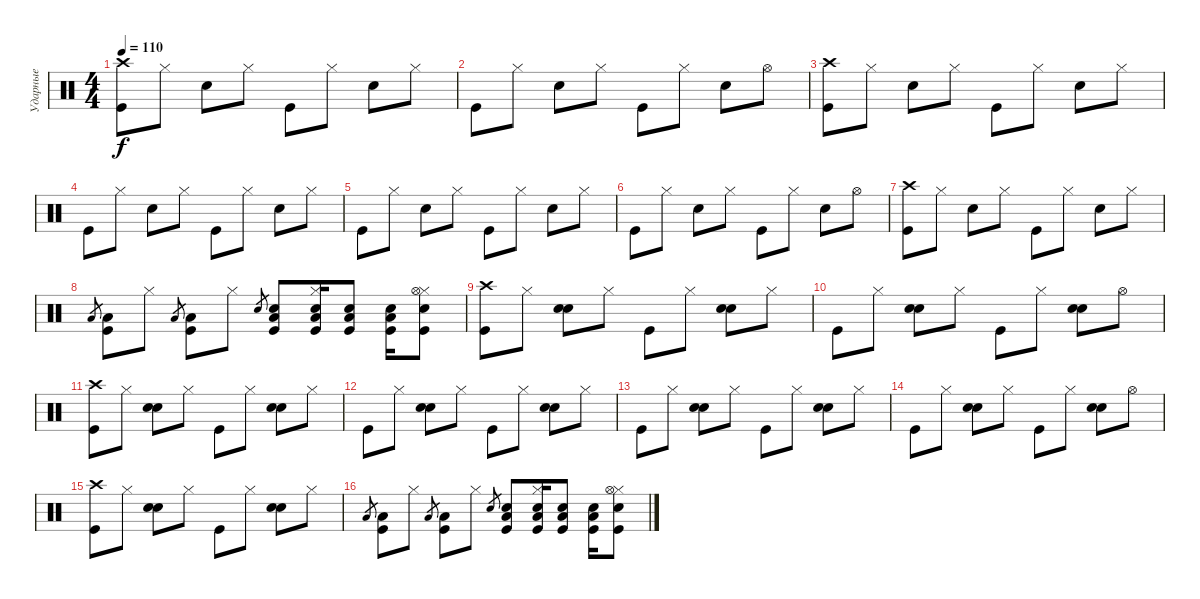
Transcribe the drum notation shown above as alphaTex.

\track ("Ударные" "Ударные") {instrument percussion}
\staff
\articulation defaults
\ts (4 4)
\tempo 110
\clef neutral
\ks c
("Crash high (hit)" "Kick (hit)").8{dy f} "Hi-Hat (closed)".8 "Snare (hit) 2".8 "Hi-Hat (closed)".8 "Kick (hit)".8 "Hi-Hat (closed)".8 "Snare (hit) 2".8 "Hi-Hat (closed)".8 |
"Kick (hit)".8 "Hi-Hat (closed)".8 "Snare (hit) 2".8 "Hi-Hat (closed)".8 "Kick (hit)".8 "Hi-Hat (closed)".8 "Snare (hit) 2".8 "Hi-Hat (open)".8 |
("Crash high (hit)" "Kick (hit)").8 "Hi-Hat (closed)".8 "Snare (hit) 2".8 "Hi-Hat (closed)".8 "Kick (hit)".8 "Hi-Hat (closed)".8 "Snare (hit) 2".8 "Hi-Hat (closed)".8 |
"Kick (hit)".8 "Hi-Hat (closed)".8 "Snare (hit) 2".8 "Hi-Hat (closed)".8 "Kick (hit)".8 "Hi-Hat (closed)".8 "Snare (hit) 2".8 "Hi-Hat (closed)".8 |
"Kick (hit)".8 "Hi-Hat (closed)".8 "Snare (hit) 2".8 "Hi-Hat (closed)".8 "Kick (hit)".8 "Hi-Hat (closed)".8 "Snare (hit) 2".8 "Hi-Hat (closed)".8 |
"Kick (hit)".8 "Hi-Hat (closed)".8 "Snare (hit) 2".8 "Hi-Hat (closed)".8 "Kick (hit)".8 "Hi-Hat (closed)".8 "Snare (hit) 2".8 "Hi-Hat (open)".8 |
("Crash high (hit)" "Kick (hit)").8 "Hi-Hat (closed)".8 "Snare (hit) 2".8 "Hi-Hat (closed)".8 "Kick (hit)".8 "Hi-Hat (closed)".8 "Snare (hit) 2".8 "Hi-Hat (closed)".8 |
"Low Floor Tom (hit)".8{gr} ("Low Floor Tom (hit)" "Kick (hit)").8 "Hi-Hat (closed)".8 "Low Floor Tom (hit)".8{gr} ("Low Floor Tom (hit)" "Kick (hit)").8 "Hi-Hat (closed)".8 "Snare (hit) 2".8{gr} ("Low Floor Tom (hit)" "Snare (hit) 2" "Kick (hit)").8 ("Hi-Hat (closed)" "Low Floor Tom (hit)" "Snare (hit) 2" "Kick (hit)").16 ("Low Floor Tom (hit)" "Snare (hit) 2" "Kick (hit)").8 ("Low Floor Tom (hit)" "Snare (hit) 2" "Kick (hit)").16 ("Hi-Hat (closed)" "Hi-Hat (open)" "Snare (hit) 2" "Kick (hit)").8 |
("Crash high (hit)" "Kick (hit)").8 "Hi-Hat (closed)".8 ("Hand Clap (hit)" "Snare (hit) 2").8 "Hi-Hat (closed)".8 "Kick (hit)".8 "Hi-Hat (closed)".8 ("Hand Clap (hit)" "Snare (hit) 2").8 "Hi-Hat (closed)".8 |
"Kick (hit)".8 "Hi-Hat (closed)".8 ("Hand Clap (hit)" "Snare (hit) 2").8 "Hi-Hat (closed)".8 "Kick (hit)".8 "Hi-Hat (closed)".8 ("Hand Clap (hit)" "Snare (hit) 2").8 "Hi-Hat (open)".8 |
("Crash high (hit)" "Kick (hit)").8 "Hi-Hat (closed)".8 ("Hand Clap (hit)" "Snare (hit) 2").8 "Hi-Hat (closed)".8 "Kick (hit)".8 "Hi-Hat (closed)".8 ("Hand Clap (hit)" "Snare (hit) 2").8 "Hi-Hat (closed)".8 |
"Kick (hit)".8 "Hi-Hat (closed)".8 ("Hand Clap (hit)" "Snare (hit) 2").8 "Hi-Hat (closed)".8 "Kick (hit)".8 "Hi-Hat (closed)".8 ("Hand Clap (hit)" "Snare (hit) 2").8 "Hi-Hat (closed)".8 |
"Kick (hit)".8 "Hi-Hat (closed)".8 ("Hand Clap (hit)" "Snare (hit) 2").8 "Hi-Hat (closed)".8 "Kick (hit)".8 "Hi-Hat (closed)".8 ("Hand Clap (hit)" "Snare (hit) 2").8 "Hi-Hat (closed)".8 |
"Kick (hit)".8 "Hi-Hat (closed)".8 ("Hand Clap (hit)" "Snare (hit) 2").8 "Hi-Hat (closed)".8 "Kick (hit)".8 "Hi-Hat (closed)".8 ("Hand Clap (hit)" "Snare (hit) 2").8 "Hi-Hat (open)".8 |
("Crash high (hit)" "Kick (hit)").8 "Hi-Hat (closed)".8 ("Hand Clap (hit)" "Snare (hit) 2").8 "Hi-Hat (closed)".8 "Kick (hit)".8 "Hi-Hat (closed)".8 ("Hand Clap (hit)" "Snare (hit) 2").8 "Hi-Hat (closed)".8 |
"Low Floor Tom (hit)".8{gr} ("Low Floor Tom (hit)" "Kick (hit)").8 "Hi-Hat (closed)".8 "Low Floor Tom (hit)".8{gr} ("Low Floor Tom (hit)" "Kick (hit)").8 "Hi-Hat (closed)".8 "Snare (hit) 2".8{gr} ("Low Floor Tom (hit)" "Snare (hit) 2" "Kick (hit)").8 ("Hi-Hat (closed)" "Low Floor Tom (hit)" "Snare (hit) 2" "Kick (hit)").16 ("Low Floor Tom (hit)" "Snare (hit) 2" "Kick (hit)").8 ("Low Floor Tom (hit)" "Snare (hit) 2" "Kick (hit)").16 ("Hi-Hat (closed)" "Hi-Hat (open)" "Snare (hit) 2" "Kick (hit)").8
